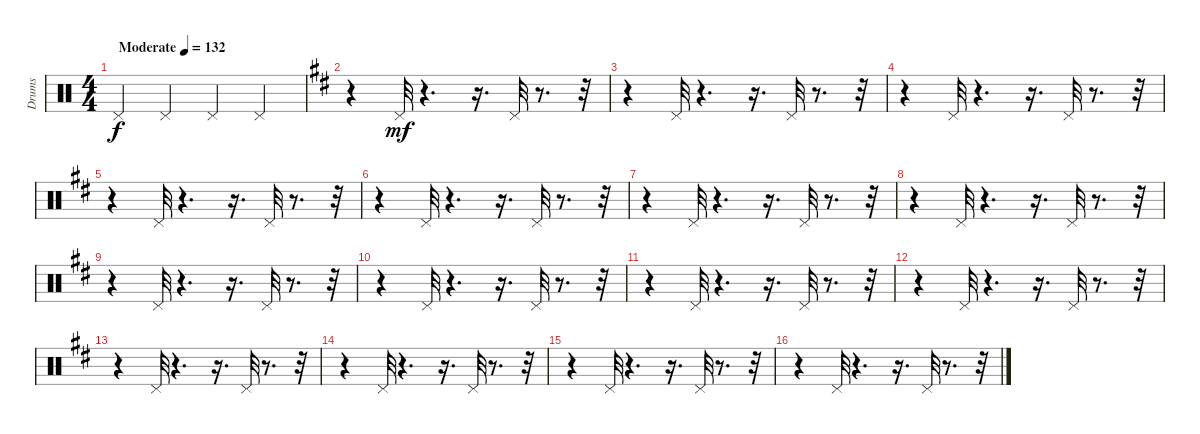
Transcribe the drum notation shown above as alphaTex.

\track ("Drums" "Drums") {instrument percussion}
\staff {score}
\articulation defaults
\ts (4 4)
\tempo (132 "Moderate")
\clef neutral
\ks c "Pedal Hi-Hat (hit)".4{dy f} "Pedal Hi-Hat (hit)".4 "Pedal Hi-Hat (hit)".4 "Pedal Hi-Hat (hit)".4
|
\ks d
r.4 "Pedal Hi-Hat (hit)".32{dy mf} r.4{d} r.16{d} "Pedal Hi-Hat (hit)".32 r.8{d} r.32 |
r.4 "Pedal Hi-Hat (hit)".32 r.4{d} r.16{d} "Pedal Hi-Hat (hit)".32 r.8{d} r.32 |
r.4 "Pedal Hi-Hat (hit)".32 r.4{d} r.16{d} "Pedal Hi-Hat (hit)".32 r.8{d} r.32 |
r.4 "Pedal Hi-Hat (hit)".32 r.4{d} r.16{d} "Pedal Hi-Hat (hit)".32 r.8{d} r.32 |
r.4 "Pedal Hi-Hat (hit)".32 r.4{d} r.16{d} "Pedal Hi-Hat (hit)".32 r.8{d} r.32 |
r.4 "Pedal Hi-Hat (hit)".32 r.4{d} r.16{d} "Pedal Hi-Hat (hit)".32 r.8{d} r.32 |
r.4 "Pedal Hi-Hat (hit)".32 r.4{d} r.16{d} "Pedal Hi-Hat (hit)".32 r.8{d} r.32 |
r.4 "Pedal Hi-Hat (hit)".32 r.4{d} r.16{d} "Pedal Hi-Hat (hit)".32 r.8{d} r.32 |
r.4 "Pedal Hi-Hat (hit)".32 r.4{d} r.16{d} "Pedal Hi-Hat (hit)".32 r.8{d} r.32 |
r.4 "Pedal Hi-Hat (hit)".32 r.4{d} r.16{d} "Pedal Hi-Hat (hit)".32 r.8{d} r.32 |
r.4 "Pedal Hi-Hat (hit)".32 r.4{d} r.16{d} "Pedal Hi-Hat (hit)".32 r.8{d} r.32 |
r.4 "Pedal Hi-Hat (hit)".32 r.4{d} r.16{d} "Pedal Hi-Hat (hit)".32 r.8{d} r.32 |
r.4 "Pedal Hi-Hat (hit)".32 r.4{d} r.16{d} "Pedal Hi-Hat (hit)".32 r.8{d} r.32 |
r.4 "Pedal Hi-Hat (hit)".32 r.4{d} r.16{d} "Pedal Hi-Hat (hit)".32 r.8{d} r.32 |
r.4 "Pedal Hi-Hat (hit)".32 r.4{d} r.16{d} "Pedal Hi-Hat (hit)".32 r.8{d} r.32
